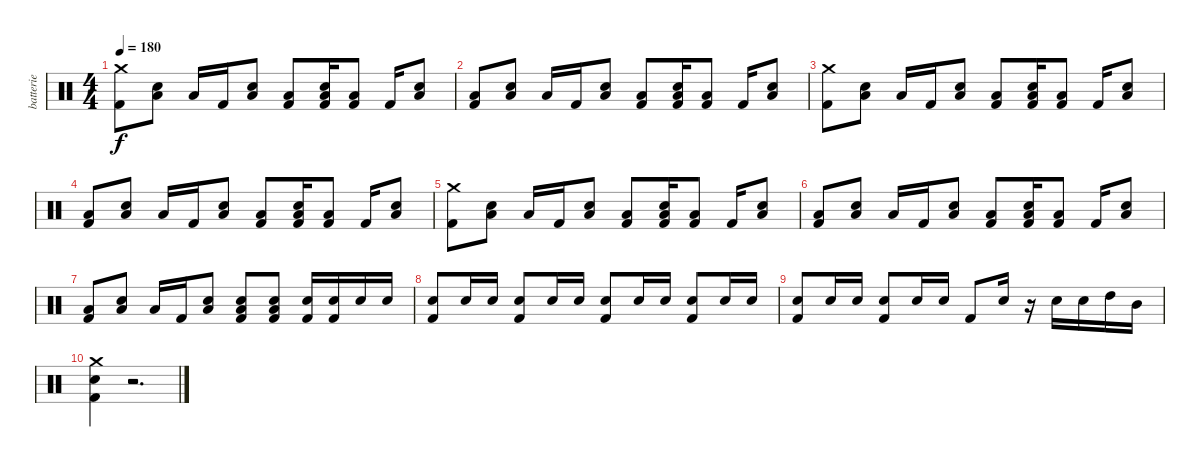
\track ("batterie" "batterie") {instrument percussion}
\staff {score}
\articulation defaults
\ts (4 4)
\tempo 180
\clef neutral
\ks c
("Crash medium (hit)" "Kick (hit) 2").8{dy f} ("Low Tom (hit)" "Electric Snare (hit)").8 "Low Tom (hit)".16 "Kick (hit) 2".16 ("Low Tom (hit)" "Electric Snare (hit)").8 ("Low Tom (hit)" "Kick (hit) 2").8 ("Low Tom (hit)" "Electric Snare (hit)" "Kick (hit) 2").16 ("Low Tom (hit)" "Kick (hit) 2").8 "Kick (hit) 2".16 ("Low Tom (hit)" "Electric Snare (hit)").8 |
("Low Tom (hit)" "Kick (hit) 2").8 ("Low Tom (hit)" "Electric Snare (hit)").8 "Low Tom (hit)".16 "Kick (hit) 2".16 ("Low Tom (hit)" "Electric Snare (hit)").8 ("Low Tom (hit)" "Kick (hit) 2").8 ("Low Tom (hit)" "Electric Snare (hit)" "Kick (hit) 2").16 ("Low Tom (hit)" "Kick (hit) 2").8 "Kick (hit) 2".16 ("Low Tom (hit)" "Electric Snare (hit)").8 |
("Crash medium (hit)" "Kick (hit) 2").8 ("Low Tom (hit)" "Electric Snare (hit)").8 "Low Tom (hit)".16 "Kick (hit) 2".16 ("Low Tom (hit)" "Electric Snare (hit)").8 ("Low Tom (hit)" "Kick (hit) 2").8 ("Low Tom (hit)" "Electric Snare (hit)" "Kick (hit) 2").16 ("Low Tom (hit)" "Kick (hit) 2").8 "Kick (hit) 2".16 ("Low Tom (hit)" "Electric Snare (hit)").8 |
("Low Tom (hit)" "Kick (hit) 2").8 ("Low Tom (hit)" "Electric Snare (hit)").8 "Low Tom (hit)".16 "Kick (hit) 2".16 ("Low Tom (hit)" "Electric Snare (hit)").8 ("Low Tom (hit)" "Kick (hit) 2").8 ("Low Tom (hit)" "Electric Snare (hit)" "Kick (hit) 2").16 ("Low Tom (hit)" "Kick (hit) 2").8 "Kick (hit) 2".16 ("Low Tom (hit)" "Electric Snare (hit)").8 |
("Crash medium (hit)" "Kick (hit) 2").8 ("Low Tom (hit)" "Electric Snare (hit)").8 "Low Tom (hit)".16 "Kick (hit) 2".16 ("Low Tom (hit)" "Electric Snare (hit)").8 ("Low Tom (hit)" "Kick (hit) 2").8 ("Low Tom (hit)" "Electric Snare (hit)" "Kick (hit) 2").16 ("Low Tom (hit)" "Kick (hit) 2").8 "Kick (hit) 2".16 ("Low Tom (hit)" "Electric Snare (hit)").8 |
("Low Tom (hit)" "Kick (hit) 2").8 ("Low Tom (hit)" "Electric Snare (hit)").8 "Low Tom (hit)".16 "Kick (hit) 2".16 ("Low Tom (hit)" "Electric Snare (hit)").8 ("Low Tom (hit)" "Kick (hit) 2").8 ("Low Tom (hit)" "Electric Snare (hit)" "Kick (hit) 2").16 ("Low Tom (hit)" "Kick (hit) 2").8 "Kick (hit) 2".16 ("Low Tom (hit)" "Electric Snare (hit)").8 |
("Low Tom (hit)" "Kick (hit) 2").8 ("Low Tom (hit)" "Electric Snare (hit)").8 "Low Tom (hit)".16 "Kick (hit) 2".16 ("Low Tom (hit)" "Electric Snare (hit)").8 ("Low Tom (hit)" "Electric Snare (hit)" "Kick (hit) 2").8 ("Low Tom (hit)" "Electric Snare (hit)" "Kick (hit) 2").8 ("Electric Snare (hit)" "Kick (hit) 2").16 ("Electric Snare (hit)" "Kick (hit) 2").16 "Electric Snare (hit)".16 "Electric Snare (hit)".16 |
("Electric Snare (hit)" "Kick (hit) 2").8 "Electric Snare (hit)".16 "Electric Snare (hit)".16 ("Electric Snare (hit)" "Kick (hit) 2").8 "Electric Snare (hit)".16 "Electric Snare (hit)".16 ("Electric Snare (hit)" "Kick (hit) 2").8 "Electric Snare (hit)".16 "Electric Snare (hit)".16 ("Electric Snare (hit)" "Kick (hit) 2").8 "Electric Snare (hit)".16 "Electric Snare (hit)".16 |
("Electric Snare (hit)" "Kick (hit) 2").8 "Electric Snare (hit)".16 "Electric Snare (hit)".16 ("Electric Snare (hit)" "Kick (hit) 2").8 "Electric Snare (hit)".16 "Electric Snare (hit)".16 "Kick (hit) 2".8 "Electric Snare (hit)".16 r.16 "Electric Snare (hit)".16 "Electric Snare (hit)".16 "High Tom (hit)".16 "Mid Tom (hit)".16 |
("Crash medium (hit)" "Electric Snare (hit)" "Kick (hit) 2").4 r.2{d}
